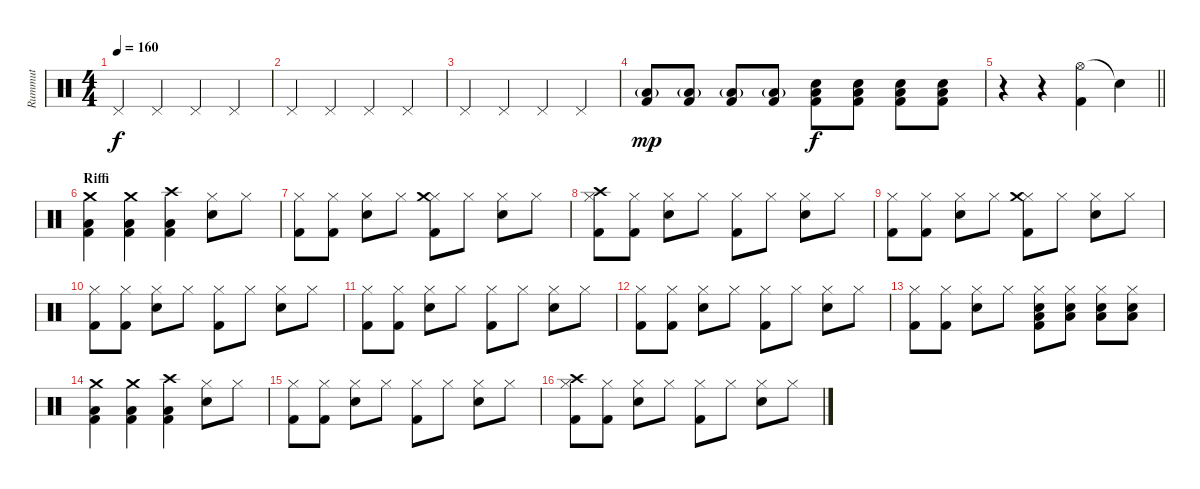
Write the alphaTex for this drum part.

\track ("Rummut" "Rummut") {instrument percussion}
\staff {score}
\articulation defaults
\ts (4 4)
\tempo 160
\clef neutral
\ks c "Pedal Hi-Hat (hit)".4{dy f} "Pedal Hi-Hat (hit)".4 "Pedal Hi-Hat (hit)".4 "Pedal Hi-Hat (hit)".4
|
"Pedal Hi-Hat (hit)".4 "Pedal Hi-Hat (hit)".4 "Pedal Hi-Hat (hit)".4 "Pedal Hi-Hat (hit)".4 |
"Pedal Hi-Hat (hit)".4 "Pedal Hi-Hat (hit)".4 "Pedal Hi-Hat (hit)".4 "Pedal Hi-Hat (hit)".4 |
("Low Tom (hit)"{g} "Kick (hit) 2").8{dy mp} ("Low Tom (hit)"{g} "Kick (hit) 2").8 ("Low Tom (hit)"{g} "Kick (hit) 2").8 ("Low Tom (hit)"{g} "Kick (hit) 2").8 ("Snare (hit) 2" "Low Tom (hit)" "Kick (hit) 2").8{dy f} ("Snare (hit) 2" "Low Tom (hit)" "Kick (hit) 2").8 ("Snare (hit) 2" "Low Tom (hit)" "Kick (hit) 2").8 ("Snare (hit) 2" "Low Tom (hit)" "Kick (hit) 2").8 |
\barLineRight lightlight
r.4 r.4 ("Hi-Hat (open)" "Kick (hit) 2").4 "Snare (hit)"{t}.4 |
\section ("" "Riffi")
("Kick (hit) 2" "Crash medium (hit)" "Low Tom (hit)").4 ("Kick (hit) 2" "Crash medium (hit)" "Low Tom (hit)").4 ("Kick (hit) 2" "Crash high (hit)" "Low Tom (hit)").4 ("Snare (hit) 2" "Hi-Hat (closed)").8 "Hi-Hat (closed)".8 |
("Kick (hit) 2" "Hi-Hat (closed)").8 ("Kick (hit) 2" "Hi-Hat (closed)").8 ("Snare (hit) 2" "Hi-Hat (closed)").8 "Hi-Hat (closed)".8 ("Kick (hit) 2" "Hi-Hat (closed)" "Crash medium (hit)").8 "Hi-Hat (closed)".8 ("Snare (hit) 2" "Hi-Hat (closed)").8 "Hi-Hat (closed)".8 |
("Kick (hit) 2" "Hi-Hat (closed)" "Crash high (hit)").8 ("Kick (hit) 2" "Hi-Hat (closed)").8 ("Snare (hit) 2" "Hi-Hat (closed)").8 "Hi-Hat (closed)".8 ("Kick (hit) 2" "Hi-Hat (closed)").8 "Hi-Hat (closed)".8 ("Snare (hit) 2" "Hi-Hat (closed)").8 "Hi-Hat (closed)".8 |
("Kick (hit) 2" "Hi-Hat (closed)").8 ("Kick (hit) 2" "Hi-Hat (closed)").8 ("Snare (hit) 2" "Hi-Hat (closed)").8 "Hi-Hat (closed)".8 ("Kick (hit) 2" "Hi-Hat (closed)" "Crash medium (hit)").8 "Hi-Hat (closed)".8 ("Snare (hit) 2" "Hi-Hat (closed)").8 "Hi-Hat (closed)".8 |
("Kick (hit) 2" "Hi-Hat (closed)").8 ("Kick (hit) 2" "Hi-Hat (closed)").8 ("Snare (hit) 2" "Hi-Hat (closed)").8 "Hi-Hat (closed)".8 ("Kick (hit) 2" "Hi-Hat (closed)").8 "Hi-Hat (closed)".8 ("Snare (hit) 2" "Hi-Hat (closed)").8 "Hi-Hat (closed)".8 |
("Kick (hit) 2" "Hi-Hat (closed)").8 ("Kick (hit) 2" "Hi-Hat (closed)").8 ("Snare (hit) 2" "Hi-Hat (closed)").8 "Hi-Hat (closed)".8 ("Kick (hit) 2" "Hi-Hat (closed)").8 "Hi-Hat (closed)".8 ("Snare (hit) 2" "Hi-Hat (closed)").8 "Hi-Hat (closed)".8 |
("Kick (hit) 2" "Hi-Hat (closed)").8 ("Kick (hit) 2" "Hi-Hat (closed)").8 ("Snare (hit) 2" "Hi-Hat (closed)").8 "Hi-Hat (closed)".8 ("Kick (hit) 2" "Hi-Hat (closed)").8 "Hi-Hat (closed)".8 ("Snare (hit) 2" "Hi-Hat (closed)").8 "Hi-Hat (closed)".8 |
("Kick (hit) 2" "Hi-Hat (closed)").8 ("Kick (hit) 2" "Hi-Hat (closed)").8 ("Snare (hit) 2" "Hi-Hat (closed)").8 "Hi-Hat (closed)".8 ("Low Tom (hit)" "Kick (hit) 2" "Hi-Hat (closed)" "Snare (hit) 2").8 ("Low Tom (hit)" "Hi-Hat (closed)" "Snare (hit) 2").8 ("Low Tom (hit)" "Snare (hit) 2" "Hi-Hat (closed)").8 ("Low Tom (hit)" "Hi-Hat (closed)" "Snare (hit) 2").8 |
("Kick (hit) 2" "Crash medium (hit)" "Low Tom (hit)").4 ("Kick (hit) 2" "Crash medium (hit)" "Low Tom (hit)").4 ("Kick (hit) 2" "Crash high (hit)" "Low Tom (hit)").4 ("Snare (hit) 2" "Hi-Hat (closed)").8 "Hi-Hat (closed)".8 |
("Kick (hit) 2" "Hi-Hat (closed)").8 ("Kick (hit) 2" "Hi-Hat (closed)").8 ("Snare (hit) 2" "Hi-Hat (closed)").8 "Hi-Hat (closed)".8 ("Kick (hit) 2" "Hi-Hat (closed)").8 "Hi-Hat (closed)".8 ("Snare (hit) 2" "Hi-Hat (closed)").8 "Hi-Hat (closed)".8 |
("Kick (hit) 2" "Hi-Hat (closed)" "Crash high (hit)").8 ("Kick (hit) 2" "Hi-Hat (closed)").8 ("Snare (hit) 2" "Hi-Hat (closed)").8 "Hi-Hat (closed)".8 ("Kick (hit) 2" "Hi-Hat (closed)").8 "Hi-Hat (closed)".8 ("Snare (hit) 2" "Hi-Hat (closed)").8 "Hi-Hat (closed)".8
